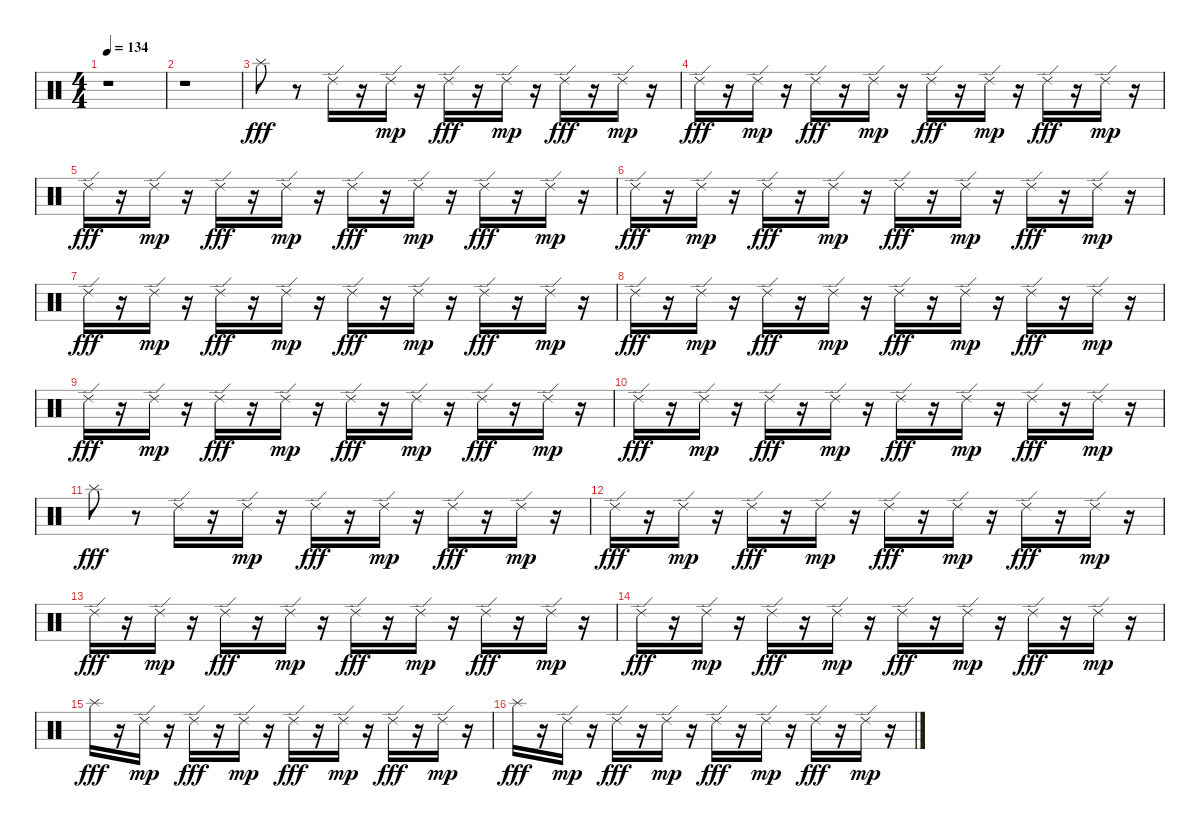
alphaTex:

\track "" {instrument percussion}
\staff {score}
\articulation defaults
\ts (4 4)
\tempo 134
\clef neutral
\ks c
r.1{dy fff} |
r.1 |
"Splash (hit)".8 r.8 "Ride (edge) 2".16 r.16 "Ride (edge) 2".16{dy mp} r.16 "Ride (edge) 2".16{dy fff} r.16 "Ride (edge) 2".16{dy mp} r.16 "Ride (edge) 2".16{dy fff} r.16 "Ride (edge) 2".16{dy mp} r.16 |
"Ride (edge) 2".16{dy fff} r.16 "Ride (edge) 2".16{dy mp} r.16 "Ride (edge) 2".16{dy fff} r.16 "Ride (edge) 2".16{dy mp} r.16 "Ride (edge) 2".16{dy fff} r.16 "Ride (edge) 2".16{dy mp} r.16 "Ride (edge) 2".16{dy fff} r.16 "Ride (edge) 2".16{dy mp} r.16 |
"Ride (edge) 2".16{dy fff} r.16 "Ride (edge) 2".16{dy mp} r.16 "Ride (edge) 2".16{dy fff} r.16 "Ride (edge) 2".16{dy mp} r.16 "Ride (edge) 2".16{dy fff} r.16 "Ride (edge) 2".16{dy mp} r.16 "Ride (edge) 2".16{dy fff} r.16 "Ride (edge) 2".16{dy mp} r.16 |
"Ride (edge) 2".16{dy fff} r.16 "Ride (edge) 2".16{dy mp} r.16 "Ride (edge) 2".16{dy fff} r.16 "Ride (edge) 2".16{dy mp} r.16 "Ride (edge) 2".16{dy fff} r.16 "Ride (edge) 2".16{dy mp} r.16 "Ride (edge) 2".16{dy fff} r.16 "Ride (edge) 2".16{dy mp} r.16 |
"Ride (edge) 2".16{dy fff} r.16 "Ride (edge) 2".16{dy mp} r.16 "Ride (edge) 2".16{dy fff} r.16 "Ride (edge) 2".16{dy mp} r.16 "Ride (edge) 2".16{dy fff} r.16 "Ride (edge) 2".16{dy mp} r.16 "Ride (edge) 2".16{dy fff} r.16 "Ride (edge) 2".16{dy mp} r.16 |
"Ride (edge) 2".16{dy fff} r.16 "Ride (edge) 2".16{dy mp} r.16 "Ride (edge) 2".16{dy fff} r.16 "Ride (edge) 2".16{dy mp} r.16 "Ride (edge) 2".16{dy fff} r.16 "Ride (edge) 2".16{dy mp} r.16 "Ride (edge) 2".16{dy fff} r.16 "Ride (edge) 2".16{dy mp} r.16 |
"Ride (edge) 2".16{dy fff} r.16 "Ride (edge) 2".16{dy mp} r.16 "Ride (edge) 2".16{dy fff} r.16 "Ride (edge) 2".16{dy mp} r.16 "Ride (edge) 2".16{dy fff} r.16 "Ride (edge) 2".16{dy mp} r.16 "Ride (edge) 2".16{dy fff} r.16 "Ride (edge) 2".16{dy mp} r.16 |
"Ride (edge) 2".16{dy fff} r.16 "Ride (edge) 2".16{dy mp} r.16 "Ride (edge) 2".16{dy fff} r.16 "Ride (edge) 2".16{dy mp} r.16 "Ride (edge) 2".16{dy fff} r.16 "Ride (edge) 2".16{dy mp} r.16 "Ride (edge) 2".16{dy fff} r.16 "Ride (edge) 2".16{dy mp} r.16 |
"Splash (hit)".8{dy fff} r.8 "Ride (edge) 2".16 r.16 "Ride (edge) 2".16{dy mp} r.16 "Ride (edge) 2".16{dy fff} r.16 "Ride (edge) 2".16{dy mp} r.16 "Ride (edge) 2".16{dy fff} r.16 "Ride (edge) 2".16{dy mp} r.16 |
"Ride (edge) 2".16{dy fff} r.16 "Ride (edge) 2".16{dy mp} r.16 "Ride (edge) 2".16{dy fff} r.16 "Ride (edge) 2".16{dy mp} r.16 "Ride (edge) 2".16{dy fff} r.16 "Ride (edge) 2".16{dy mp} r.16 "Ride (edge) 2".16{dy fff} r.16 "Ride (edge) 2".16{dy mp} r.16 |
"Ride (edge) 2".16{dy fff} r.16 "Ride (edge) 2".16{dy mp} r.16 "Ride (edge) 2".16{dy fff} r.16 "Ride (edge) 2".16{dy mp} r.16 "Ride (edge) 2".16{dy fff} r.16 "Ride (edge) 2".16{dy mp} r.16 "Ride (edge) 2".16{dy fff} r.16 "Ride (edge) 2".16{dy mp} r.16 |
"Ride (edge) 2".16{dy fff} r.16 "Ride (edge) 2".16{dy mp} r.16 "Ride (edge) 2".16{dy fff} r.16 "Ride (edge) 2".16{dy mp} r.16 "Ride (edge) 2".16{dy fff} r.16 "Ride (edge) 2".16{dy mp} r.16 "Ride (edge) 2".16{dy fff} r.16 "Ride (edge) 2".16{dy mp} r.16 |
"Splash (hit)".16{dy fff} r.16 "Ride (edge) 2".16{dy mp} r.16 "Ride (edge) 2".16{dy fff} r.16 "Ride (edge) 2".16{dy mp} r.16 "Ride (edge) 2".16{dy fff} r.16 "Ride (edge) 2".16{dy mp} r.16 "Ride (edge) 2".16{dy fff} r.16 "Ride (edge) 2".16{dy mp} r.16 |
"Splash (hit)".16{dy fff} r.16 "Ride (edge) 2".16{dy mp} r.16 "Ride (edge) 2".16{dy fff} r.16 "Ride (edge) 2".16{dy mp} r.16 "Ride (edge) 2".16{dy fff} r.16 "Ride (edge) 2".16{dy mp} r.16 "Ride (edge) 2".16{dy fff} r.16 "Ride (edge) 2".16{dy mp} r.16
